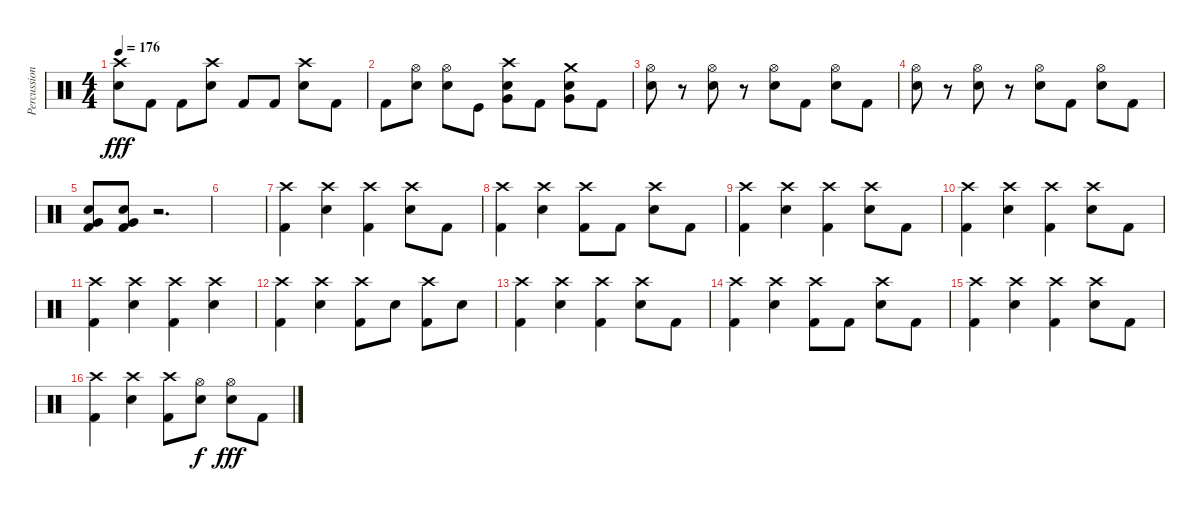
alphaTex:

\track ("Percussion" "Percussion") {instrument percussion}
\staff {score}
\articulation defaults
\ts (4 4)
\tempo 176
\clef neutral
\ks c
("Crash high (hit)" "Snare (hit) 2").8{dy fff} "Kick (hit) 2".8 "Kick (hit) 2".8 ("Crash high (hit)" "Snare (hit) 2").8 "Kick (hit) 2".8 "Kick (hit) 2".8 ("Crash high (hit)" "Snare (hit) 2").8 "Kick (hit) 2".8 |
"Kick (hit) 2".8 ("Hi-Hat (open)" "Snare (hit) 2").8 ("Hi-Hat (open)" "Snare (hit) 2").8 "Kick (hit)".8 ("Crash high (hit)" "Snare (hit) 2" "Very Low Tom (hit)").8 "Kick (hit) 2".8 ("Crash medium (hit)" "Snare (hit) 2" "Very Low Tom (hit)").8 "Kick (hit) 2".8 |
("Hi-Hat (open)" "Snare (hit) 2").8 r.8 ("Hi-Hat (open)" "Snare (hit) 2").8 r.8 ("Hi-Hat (open)" "Snare (hit) 2").8 "Kick (hit) 2".8 ("Hi-Hat (open)" "Snare (hit) 2").8 "Kick (hit) 2".8 |
("Hi-Hat (open)" "Snare (hit) 2").8 r.8 ("Hi-Hat (open)" "Snare (hit) 2").8 r.8 ("Hi-Hat (open)" "Snare (hit) 2").8 "Kick (hit) 2".8 ("Hi-Hat (open)" "Snare (hit) 2").8 "Kick (hit) 2".8 |
("Snare (hit) 2" "Very Low Tom (hit)" "Kick (hit) 2").8 ("Snare (hit) 2" "Very Low Tom (hit)" "Kick (hit) 2").8 r.2{d} |
|
("Crash high (hit)" "Kick (hit) 2").4 ("Crash high (hit)" "Snare (hit) 2").4 ("Crash high (hit)" "Kick (hit) 2").4 ("Crash high (hit)" "Snare (hit) 2").8 "Kick (hit) 2".8 |
("Crash high (hit)" "Kick (hit) 2").4 ("Crash high (hit)" "Snare (hit) 2").4 ("Crash high (hit)" "Kick (hit) 2").8 "Kick (hit) 2".8 ("Crash high (hit)" "Snare (hit) 2").8 "Kick (hit) 2".8 |
("Crash high (hit)" "Kick (hit) 2").4 ("Crash high (hit)" "Snare (hit) 2").4 ("Crash high (hit)" "Kick (hit) 2").4 ("Crash high (hit)" "Snare (hit) 2").8 "Kick (hit) 2".8 |
("Crash high (hit)" "Kick (hit) 2").4 ("Crash high (hit)" "Snare (hit) 2").4 ("Crash high (hit)" "Kick (hit) 2").4 ("Crash high (hit)" "Snare (hit) 2").8 "Kick (hit) 2".8 |
("Crash high (hit)" "Kick (hit) 2").4 ("Crash high (hit)" "Snare (hit) 2").4 ("Crash high (hit)" "Kick (hit) 2").4 ("Crash high (hit)" "Snare (hit) 2").4 |
("Crash high (hit)" "Kick (hit) 2").4 ("Crash high (hit)" "Snare (hit) 2").4 ("Crash high (hit)" "Kick (hit) 2").8 "Snare (hit) 2".8 ("Crash high (hit)" "Kick (hit) 2").8 "Snare (hit) 2".8 |
("Crash high (hit)" "Kick (hit) 2").4 ("Crash high (hit)" "Snare (hit) 2").4 ("Crash high (hit)" "Kick (hit) 2").4 ("Crash high (hit)" "Snare (hit) 2").8 "Kick (hit) 2".8 |
("Crash high (hit)" "Kick (hit) 2").4 ("Crash high (hit)" "Snare (hit) 2").4 ("Crash high (hit)" "Kick (hit) 2").8 "Kick (hit) 2".8 ("Crash high (hit)" "Snare (hit) 2").8 "Kick (hit) 2".8 |
("Crash high (hit)" "Kick (hit) 2").4 ("Crash high (hit)" "Snare (hit) 2").4 ("Crash high (hit)" "Kick (hit) 2").4 ("Crash high (hit)" "Snare (hit) 2").8 "Kick (hit) 2".8 |
("Crash high (hit)" "Kick (hit) 2").4 ("Crash high (hit)" "Snare (hit) 2").4 ("Crash high (hit)" "Kick (hit) 2").8 ("Hi-Hat (open)" "Snare (hit) 2").8{dy f} ("Hi-Hat (open)" "Snare (hit) 2").8{dy fff} "Kick (hit) 2".8
